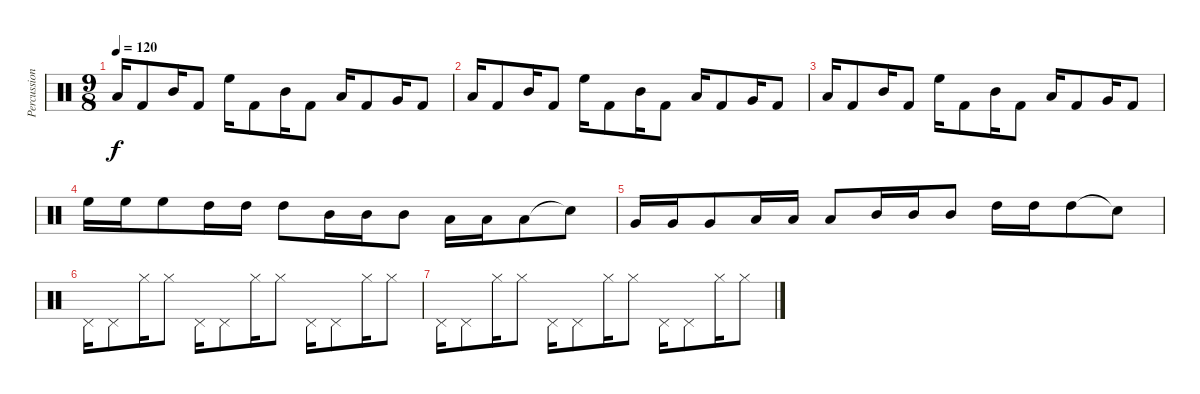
\track ("Percussion" "Percussion") {instrument percussion}
\staff {score}
\articulation defaults
\ts (9 8)
\tempo 120
\clef neutral
\ks c "Low Tom (hit)".16{dy f} "Kick (hit) 2".8 "Mid Tom (hit)".16 "Kick (hit) 2".8 "High Floor Tom (hit)".16 "Kick (hit) 2".8 "Mid Tom (hit)".16 "Kick (hit) 2".8 "Low Tom (hit)".16 "Kick (hit) 2".8 "Very Low Tom (hit)".16 "Kick (hit) 2".8
|
"Low Tom (hit)".16 "Kick (hit) 2".8 "Mid Tom (hit)".16 "Kick (hit) 2".8 "High Floor Tom (hit)".16 "Kick (hit) 2".8 "Mid Tom (hit)".16 "Kick (hit) 2".8 "Low Tom (hit)".16 "Kick (hit) 2".8 "Very Low Tom (hit)".16 "Kick (hit) 2".8 |
"Low Tom (hit)".16 "Kick (hit) 2".8 "Mid Tom (hit)".16 "Kick (hit) 2".8 "High Floor Tom (hit)".16 "Kick (hit) 2".8 "Mid Tom (hit)".16 "Kick (hit) 2".8 "Low Tom (hit)".16 "Kick (hit) 2".8 "Very Low Tom (hit)".16 "Kick (hit) 2".8 |
"High Floor Tom (hit)".16 "High Floor Tom (hit)".16 "High Floor Tom (hit)".8 "High Tom (hit)".16 "High Tom (hit)".16 "High Tom (hit)".8 "Mid Tom (hit)".16 "Mid Tom (hit)".16 "Mid Tom (hit)".8 "Low Tom (hit)".16 "Low Tom (hit)".16 "Low Tom (hit)".8 "Snare (hit)"{t}.8 |
"Very Low Tom (hit)".16 "Very Low Tom (hit)".16 "Very Low Tom (hit)".8 "Low Tom (hit)".16 "Low Tom (hit)".16 "Low Tom (hit)".8 "Mid Tom (hit)".16 "Mid Tom (hit)".16 "Mid Tom (hit)".8 "High Tom (hit)".16 "High Tom (hit)".16 "High Tom (hit)".8 "Snare (hit)"{t}.8 |
"Pedal Hi-Hat (hit)".16 "Pedal Hi-Hat (hit)".8 "Hi-Hat (closed)".16 "Hi-Hat (closed)".8 "Pedal Hi-Hat (hit)".16 "Pedal Hi-Hat (hit)".8 "Hi-Hat (closed)".16 "Hi-Hat (closed)".8 "Pedal Hi-Hat (hit)".16 "Pedal Hi-Hat (hit)".8 "Hi-Hat (closed)".16 "Hi-Hat (closed)".8 |
"Pedal Hi-Hat (hit)".16 "Pedal Hi-Hat (hit)".8 "Hi-Hat (closed)".16 "Hi-Hat (closed)".8 "Pedal Hi-Hat (hit)".16 "Pedal Hi-Hat (hit)".8 "Hi-Hat (closed)".16 "Hi-Hat (closed)".8 "Pedal Hi-Hat (hit)".16 "Pedal Hi-Hat (hit)".8 "Hi-Hat (closed)".16 "Hi-Hat (closed)".8
